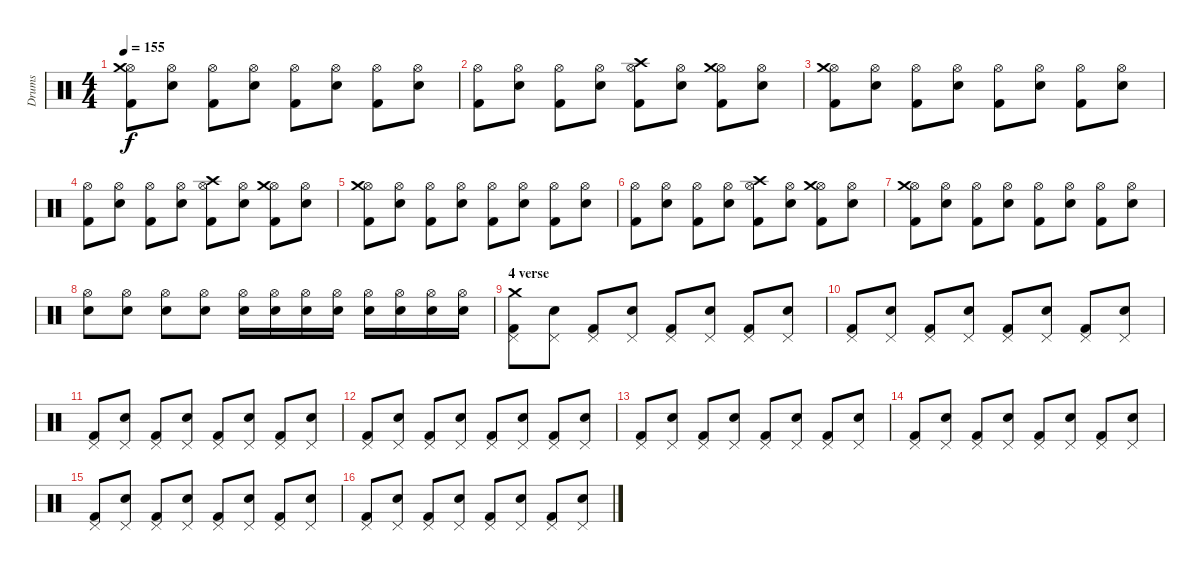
\track ("Drums" "Drums") {instrument percussion}
\staff {score}
\articulation defaults
\ts (4 4)
\tempo 155
\clef neutral
\ks c
("Hi-Hat (open)" "Crash medium (hit)" "Kick (hit) 2").8{dy f} ("Hi-Hat (open)" "Electric Snare (hit)").8 ("Hi-Hat (open)" "Kick (hit) 2").8 ("Hi-Hat (open)" "Electric Snare (hit)").8 ("Hi-Hat (open)" "Kick (hit) 2").8 ("Hi-Hat (open)" "Electric Snare (hit)").8 ("Hi-Hat (open)" "Kick (hit) 2").8 ("Hi-Hat (open)" "Electric Snare (hit)").8 |
("Hi-Hat (open)" "Kick (hit) 2").8 ("Hi-Hat (open)" "Electric Snare (hit)").8 ("Hi-Hat (open)" "Kick (hit) 2").8 ("Hi-Hat (open)" "Electric Snare (hit)").8 ("Hi-Hat (open)" "Crash high (hit)" "Kick (hit) 2").8 ("Hi-Hat (open)" "Electric Snare (hit)").8 ("Hi-Hat (open)" "Crash medium (hit)" "Kick (hit) 2").8 ("Hi-Hat (open)" "Electric Snare (hit)").8 |
("Hi-Hat (open)" "Crash medium (hit)" "Kick (hit) 2").8 ("Hi-Hat (open)" "Electric Snare (hit)").8 ("Hi-Hat (open)" "Kick (hit) 2").8 ("Hi-Hat (open)" "Electric Snare (hit)").8 ("Hi-Hat (open)" "Kick (hit) 2").8 ("Hi-Hat (open)" "Electric Snare (hit)").8 ("Hi-Hat (open)" "Kick (hit) 2").8 ("Hi-Hat (open)" "Electric Snare (hit)").8 |
("Hi-Hat (open)" "Kick (hit) 2").8 ("Hi-Hat (open)" "Electric Snare (hit)").8 ("Hi-Hat (open)" "Kick (hit) 2").8 ("Hi-Hat (open)" "Electric Snare (hit)").8 ("Hi-Hat (open)" "Crash high (hit)" "Kick (hit) 2").8 ("Hi-Hat (open)" "Electric Snare (hit)").8 ("Hi-Hat (open)" "Crash medium (hit)" "Kick (hit) 2").8 ("Hi-Hat (open)" "Electric Snare (hit)").8 |
("Hi-Hat (open)" "Crash medium (hit)" "Kick (hit) 2").8 ("Hi-Hat (open)" "Electric Snare (hit)").8 ("Hi-Hat (open)" "Kick (hit) 2").8 ("Hi-Hat (open)" "Electric Snare (hit)").8 ("Hi-Hat (open)" "Kick (hit) 2").8 ("Hi-Hat (open)" "Electric Snare (hit)").8 ("Hi-Hat (open)" "Kick (hit) 2").8 ("Hi-Hat (open)" "Electric Snare (hit)").8 |
("Hi-Hat (open)" "Kick (hit) 2").8 ("Hi-Hat (open)" "Electric Snare (hit)").8 ("Hi-Hat (open)" "Kick (hit) 2").8 ("Hi-Hat (open)" "Electric Snare (hit)").8 ("Hi-Hat (open)" "Crash high (hit)" "Kick (hit) 2").8 ("Hi-Hat (open)" "Electric Snare (hit)").8 ("Hi-Hat (open)" "Crash medium (hit)" "Kick (hit) 2").8 ("Hi-Hat (open)" "Electric Snare (hit)").8 |
("Hi-Hat (open)" "Crash medium (hit)" "Kick (hit) 2").8 ("Hi-Hat (open)" "Electric Snare (hit)").8 ("Hi-Hat (open)" "Kick (hit) 2").8 ("Hi-Hat (open)" "Electric Snare (hit)").8 ("Hi-Hat (open)" "Kick (hit) 2").8 ("Hi-Hat (open)" "Electric Snare (hit)").8 ("Hi-Hat (open)" "Kick (hit) 2").8 ("Hi-Hat (open)" "Electric Snare (hit)").8 |
("Hi-Hat (open)" "Electric Snare (hit)").8 ("Hi-Hat (open)" "Electric Snare (hit)").8 ("Hi-Hat (open)" "Electric Snare (hit)").8 ("Hi-Hat (open)" "Electric Snare (hit)").8 ("Hi-Hat (open)" "Electric Snare (hit)").16 ("Hi-Hat (open)" "Electric Snare (hit)").16 ("Hi-Hat (open)" "Electric Snare (hit)").16 ("Hi-Hat (open)" "Electric Snare (hit)").16 ("Hi-Hat (open)" "Electric Snare (hit)").16 ("Hi-Hat (open)" "Electric Snare (hit)").16 ("Hi-Hat (open)" "Electric Snare (hit)").16 ("Hi-Hat (open)" "Electric Snare (hit)").16 |
\section ("" "4 verse")
("Pedal Hi-Hat (hit)" "Crash medium (hit)" "Kick (hit) 2").8 ("Pedal Hi-Hat (hit)" "Electric Snare (hit)").8 ("Pedal Hi-Hat (hit)" "Kick (hit) 2").8 ("Pedal Hi-Hat (hit)" "Electric Snare (hit)").8 ("Pedal Hi-Hat (hit)" "Kick (hit) 2").8 ("Pedal Hi-Hat (hit)" "Electric Snare (hit)").8 ("Pedal Hi-Hat (hit)" "Kick (hit) 2").8 ("Pedal Hi-Hat (hit)" "Electric Snare (hit)").8 |
("Pedal Hi-Hat (hit)" "Kick (hit) 2").8 ("Pedal Hi-Hat (hit)" "Electric Snare (hit)").8 ("Pedal Hi-Hat (hit)" "Kick (hit) 2").8 ("Pedal Hi-Hat (hit)" "Electric Snare (hit)").8 ("Pedal Hi-Hat (hit)" "Kick (hit) 2").8 ("Pedal Hi-Hat (hit)" "Electric Snare (hit)").8 ("Pedal Hi-Hat (hit)" "Kick (hit) 2").8 ("Pedal Hi-Hat (hit)" "Electric Snare (hit)").8 |
("Pedal Hi-Hat (hit)" "Kick (hit) 2").8 ("Pedal Hi-Hat (hit)" "Electric Snare (hit)").8 ("Pedal Hi-Hat (hit)" "Kick (hit) 2").8 ("Pedal Hi-Hat (hit)" "Electric Snare (hit)").8 ("Pedal Hi-Hat (hit)" "Kick (hit) 2").8 ("Pedal Hi-Hat (hit)" "Electric Snare (hit)").8 ("Pedal Hi-Hat (hit)" "Kick (hit) 2").8 ("Pedal Hi-Hat (hit)" "Electric Snare (hit)").8 |
("Pedal Hi-Hat (hit)" "Kick (hit) 2").8 ("Pedal Hi-Hat (hit)" "Electric Snare (hit)").8 ("Pedal Hi-Hat (hit)" "Kick (hit) 2").8 ("Pedal Hi-Hat (hit)" "Electric Snare (hit)").8 ("Pedal Hi-Hat (hit)" "Kick (hit) 2").8 ("Pedal Hi-Hat (hit)" "Electric Snare (hit)").8 ("Pedal Hi-Hat (hit)" "Kick (hit) 2").8 ("Pedal Hi-Hat (hit)" "Electric Snare (hit)").8 |
("Pedal Hi-Hat (hit)" "Kick (hit) 2").8 ("Pedal Hi-Hat (hit)" "Electric Snare (hit)").8 ("Pedal Hi-Hat (hit)" "Kick (hit) 2").8 ("Pedal Hi-Hat (hit)" "Electric Snare (hit)").8 ("Pedal Hi-Hat (hit)" "Kick (hit) 2").8 ("Pedal Hi-Hat (hit)" "Electric Snare (hit)").8 ("Pedal Hi-Hat (hit)" "Kick (hit) 2").8 ("Pedal Hi-Hat (hit)" "Electric Snare (hit)").8 |
("Pedal Hi-Hat (hit)" "Kick (hit) 2").8 ("Pedal Hi-Hat (hit)" "Electric Snare (hit)").8 ("Pedal Hi-Hat (hit)" "Kick (hit) 2").8 ("Pedal Hi-Hat (hit)" "Electric Snare (hit)").8 ("Pedal Hi-Hat (hit)" "Kick (hit) 2").8 ("Pedal Hi-Hat (hit)" "Electric Snare (hit)").8 ("Pedal Hi-Hat (hit)" "Kick (hit) 2").8 ("Pedal Hi-Hat (hit)" "Electric Snare (hit)").8 |
("Pedal Hi-Hat (hit)" "Kick (hit) 2").8 ("Pedal Hi-Hat (hit)" "Electric Snare (hit)").8 ("Pedal Hi-Hat (hit)" "Kick (hit) 2").8 ("Pedal Hi-Hat (hit)" "Electric Snare (hit)").8 ("Pedal Hi-Hat (hit)" "Kick (hit) 2").8 ("Pedal Hi-Hat (hit)" "Electric Snare (hit)").8 ("Pedal Hi-Hat (hit)" "Kick (hit) 2").8 ("Pedal Hi-Hat (hit)" "Electric Snare (hit)").8 |
("Pedal Hi-Hat (hit)" "Kick (hit) 2").8 ("Pedal Hi-Hat (hit)" "Electric Snare (hit)").8 ("Pedal Hi-Hat (hit)" "Kick (hit) 2").8 ("Pedal Hi-Hat (hit)" "Electric Snare (hit)").8 ("Pedal Hi-Hat (hit)" "Kick (hit) 2").8 ("Pedal Hi-Hat (hit)" "Electric Snare (hit)").8 ("Pedal Hi-Hat (hit)" "Kick (hit) 2").8 ("Pedal Hi-Hat (hit)" "Electric Snare (hit)").8
